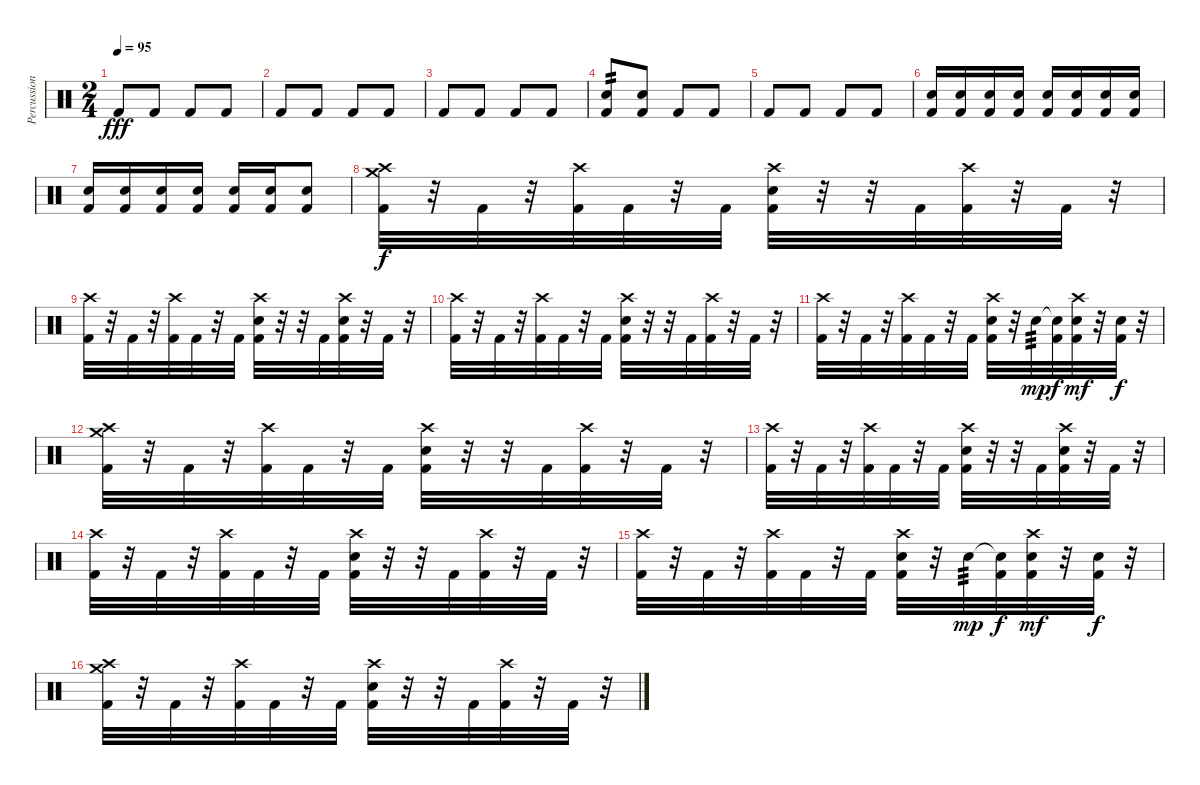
\track ("Percussion" "Percussion") {instrument percussion}
\staff {score}
\articulation defaults
\ts (2 4)
\tempo 95
\clef neutral
\ks c "Kick (hit) 2".8{dy fff} "Kick (hit) 2".8 "Kick (hit) 2".8 "Kick (hit) 2".8
|
"Kick (hit) 2".8 "Kick (hit) 2".8 "Kick (hit) 2".8 "Kick (hit) 2".8 |
"Kick (hit) 2".8 "Kick (hit) 2".8 "Kick (hit) 2".8 "Kick (hit) 2".8 |
("Electric Snare (hit)" "Kick (hit) 2").8{tp 2} ("Electric Snare (hit)" "Kick (hit) 2").8 "Kick (hit) 2".8 "Kick (hit) 2".8 |
"Kick (hit) 2".8 "Kick (hit) 2".8 "Kick (hit) 2".8 "Kick (hit) 2".8 |
("Electric Snare (hit)" "Kick (hit) 2").16 ("Electric Snare (hit)" "Kick (hit) 2").16 ("Electric Snare (hit)" "Kick (hit) 2").16 ("Electric Snare (hit)" "Kick (hit) 2").16 ("Electric Snare (hit)" "Kick (hit) 2").16 ("Electric Snare (hit)" "Kick (hit) 2").16 ("Electric Snare (hit)" "Kick (hit) 2").16 ("Electric Snare (hit)" "Kick (hit) 2").16 |
("Electric Snare (hit)" "Kick (hit) 2").16 ("Electric Snare (hit)" "Kick (hit) 2").16 ("Electric Snare (hit)" "Kick (hit) 2").16 ("Electric Snare (hit)" "Kick (hit) 2").16 ("Electric Snare (hit)" "Kick (hit) 2").16 ("Electric Snare (hit)" "Kick (hit) 2").16 ("Electric Snare (hit)" "Kick (hit) 2").8 |
("Crash medium (hit)" "Crash high (hit)" "Kick (hit) 2").32{dy f} r.32 "Kick (hit) 2".32 r.32 ("Crash high (hit)" "Kick (hit) 2").32 "Kick (hit) 2".32 r.32 "Kick (hit) 2".32 ("Crash high (hit)" "Electric Snare (hit)" "Kick (hit) 2").32 r.32 r.32 "Kick (hit) 2".32 ("Crash high (hit)" "Kick (hit) 2").32 r.32 "Kick (hit) 2".32 r.32 |
("Crash high (hit)" "Kick (hit) 2").32 r.32 "Kick (hit) 2".32 r.32 ("Crash high (hit)" "Kick (hit) 2").32 "Kick (hit) 2".32 r.32 "Kick (hit) 2".32 ("Crash high (hit)" "Electric Snare (hit)" "Kick (hit) 2").32 r.32 r.32 "Kick (hit) 2".32 ("Crash high (hit)" "Electric Snare (hit)" "Kick (hit) 2").32 r.32 "Kick (hit) 2".32 r.32 |
("Crash high (hit)" "Kick (hit) 2").32 r.32 "Kick (hit) 2".32 r.32 ("Crash high (hit)" "Kick (hit) 2").32 "Kick (hit) 2".32 r.32 "Kick (hit) 2".32 ("Crash high (hit)" "Electric Snare (hit)" "Kick (hit) 2").32 r.32 r.32 "Kick (hit) 2".32 ("Crash high (hit)" "Kick (hit) 2").32 r.32 "Kick (hit) 2".32 r.32 |
("Crash high (hit)" "Kick (hit) 2").32 r.32 "Kick (hit) 2".32 r.32 ("Crash high (hit)" "Kick (hit) 2").32 "Kick (hit) 2".32 r.32 "Kick (hit) 2".32 ("Crash high (hit)" "Electric Snare (hit)" "Kick (hit) 2").32 r.32 "Electric Snare (hit)".32{tp 3 dy mp} ("Snare (hit)"{t} "Kick (hit) 2").32{dy f} ("Crash high (hit)" "Electric Snare (hit)" "Kick (hit) 2").32{dy mf} r.32 ("Electric Snare (hit)" "Kick (hit) 2").32{dy f} r.32 |
("Crash medium (hit)" "Crash high (hit)" "Kick (hit) 2").32 r.32 "Kick (hit) 2".32 r.32 ("Crash high (hit)" "Kick (hit) 2").32 "Kick (hit) 2".32 r.32 "Kick (hit) 2".32 ("Crash high (hit)" "Electric Snare (hit)" "Kick (hit) 2").32 r.32 r.32 "Kick (hit) 2".32 ("Crash high (hit)" "Kick (hit) 2").32 r.32 "Kick (hit) 2".32 r.32 |
("Crash high (hit)" "Kick (hit) 2").32 r.32 "Kick (hit) 2".32 r.32 ("Crash high (hit)" "Kick (hit) 2").32 "Kick (hit) 2".32 r.32 "Kick (hit) 2".32 ("Crash high (hit)" "Electric Snare (hit)" "Kick (hit) 2").32 r.32 r.32 "Kick (hit) 2".32 ("Crash high (hit)" "Electric Snare (hit)" "Kick (hit) 2").32 r.32 "Kick (hit) 2".32 r.32 |
("Crash high (hit)" "Kick (hit) 2").32 r.32 "Kick (hit) 2".32 r.32 ("Crash high (hit)" "Kick (hit) 2").32 "Kick (hit) 2".32 r.32 "Kick (hit) 2".32 ("Crash high (hit)" "Electric Snare (hit)" "Kick (hit) 2").32 r.32 r.32 "Kick (hit) 2".32 ("Crash high (hit)" "Kick (hit) 2").32 r.32 "Kick (hit) 2".32 r.32 |
("Crash high (hit)" "Kick (hit) 2").32 r.32 "Kick (hit) 2".32 r.32 ("Crash high (hit)" "Kick (hit) 2").32 "Kick (hit) 2".32 r.32 "Kick (hit) 2".32 ("Crash high (hit)" "Electric Snare (hit)" "Kick (hit) 2").32 r.32 "Electric Snare (hit)".32{tp 3 dy mp} ("Snare (hit)"{t} "Kick (hit) 2").32{dy f} ("Crash high (hit)" "Electric Snare (hit)" "Kick (hit) 2").32{dy mf} r.32 ("Electric Snare (hit)" "Kick (hit) 2").32{dy f} r.32 |
("Crash medium (hit)" "Crash high (hit)" "Kick (hit) 2").32 r.32 "Kick (hit) 2".32 r.32 ("Crash high (hit)" "Kick (hit) 2").32 "Kick (hit) 2".32 r.32 "Kick (hit) 2".32 ("Crash high (hit)" "Electric Snare (hit)" "Kick (hit) 2").32 r.32 r.32 "Kick (hit) 2".32 ("Crash high (hit)" "Kick (hit) 2").32 r.32 "Kick (hit) 2".32 r.32
